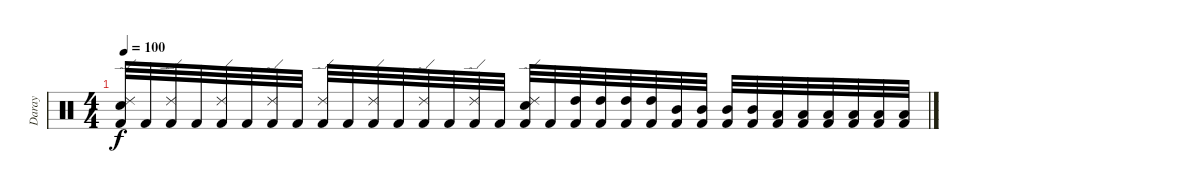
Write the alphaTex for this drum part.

\track ("Daray" "Daray") {instrument percussion}
\staff {score}
\articulation defaults
\ts (4 4)
\tempo 100
\clef neutral
\ks c
("Snare (hit) 2" "Ride (edge) 2" "Kick (hit) 2").32{dy f} "Kick (hit) 2".32 ("Ride (edge) 2" "Kick (hit) 2").32 "Kick (hit) 2".32 ("Ride (edge) 2" "Kick (hit) 2").32 "Kick (hit) 2".32 ("Ride (edge) 2" "Kick (hit) 2").32 "Kick (hit) 2".32 ("Ride (edge) 2" "Kick (hit) 2").32 "Kick (hit) 2".32 ("Ride (edge) 2" "Kick (hit) 2").32 "Kick (hit) 2".32 ("Ride (edge) 2" "Kick (hit) 2").32 "Kick (hit) 2".32 ("Ride (edge) 2" "Kick (hit) 2").32 "Kick (hit) 2".32 ("Snare (hit) 2" "Ride (edge) 2" "Kick (hit) 2").32 "Kick (hit) 2".32 ("High Tom (hit)" "Kick (hit) 2").32 ("High Tom (hit)" "Kick (hit) 2").32 ("High Tom (hit)" "Kick (hit) 2").32 ("High Tom (hit)" "Kick (hit) 2").32 ("Mid Tom (hit)" "Kick (hit) 2").32 ("Mid Tom (hit)" "Kick (hit) 2").32 ("Mid Tom (hit)" "Kick (hit) 2").32 ("Mid Tom (hit)" "Kick (hit) 2").32 ("Low Tom (hit)" "Kick (hit) 2").32 ("Low Tom (hit)" "Kick (hit) 2").32 ("Low Tom (hit)" "Kick (hit) 2").32 ("Low Floor Tom (hit)" "Kick (hit) 2").32 ("Low Floor Tom (hit)" "Kick (hit) 2").32 ("Low Floor Tom (hit)" "Kick (hit) 2").32
